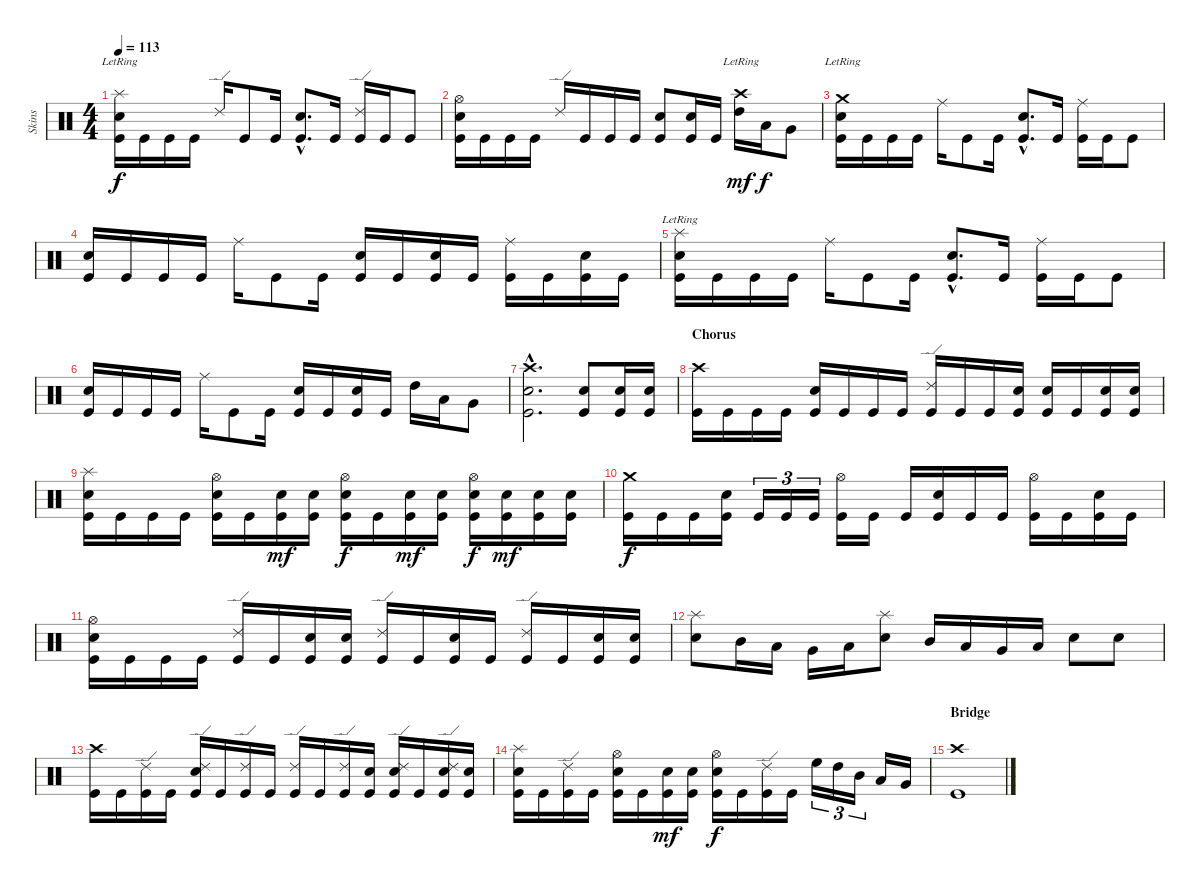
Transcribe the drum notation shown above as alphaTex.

\track ("Skins" "Skins") {instrument percussion}
\staff {score}
\articulation defaults
\ts (4 4)
\tempo 113
\clef neutral
\ks c
("Splash (hit)"{lr} "Electric Snare (hit)" "Kick (hit)").16{dy f} "Kick (hit)".16 "Kick (hit)".16 "Kick (hit)".16 "Ride (edge) 2".16 "Kick (hit)".8 "Kick (hit)".16 ("Electric Snare (hit)"{hac} "Kick (hit)"{hac}).8{d} "Kick (hit)".16 ("Ride (edge) 2" "Kick (hit)").16 "Kick (hit)".16 "Kick (hit)".8 |
("Hi-Hat (open)" "Electric Snare (hit)" "Kick (hit)").16 "Kick (hit)".16 "Kick (hit)".16 "Kick (hit)".16 "Ride (edge) 2".16 "Kick (hit)".16 "Kick (hit)".16 "Kick (hit)".16 ("Snare (hit) 2" "Kick (hit)").8 ("Snare (hit) 2" "Kick (hit)").16 "Kick (hit)".16 ("Crash high (hit)"{lr} "High Tom (hit)").16{dy mf} "Low Tom (hit)".16{dy f} "Very Low Tom (hit)".8 |
("Crash medium (hit)"{lr} "Electric Snare (hit)" "Kick (hit)").16 "Kick (hit)".16 "Kick (hit)".16 "Kick (hit)".16 "Ride (middle)".16 "Kick (hit)".8 "Kick (hit)".16 ("Electric Snare (hit)"{hac} "Kick (hit)"{hac}).8{d} "Kick (hit)".16 ("Ride (middle)" "Kick (hit)").16 "Kick (hit)".16 "Kick (hit)".8 |
("Electric Snare (hit)" "Kick (hit)").16 "Kick (hit)".16 "Kick (hit)".16 "Kick (hit)".16 "Ride (middle)".16 "Kick (hit)".8 "Kick (hit)".16 ("Snare (hit) 2" "Kick (hit)").16 "Kick (hit)".16 ("Snare (hit) 2" "Kick (hit)").16 "Kick (hit)".16 ("Ride (middle)" "Kick (hit)").16 "Kick (hit)".16 ("Snare (hit) 2" "Kick (hit)").16 "Kick (hit)".16 |
("Splash (hit)"{lr} "Electric Snare (hit)" "Kick (hit)").16 "Kick (hit)".16 "Kick (hit)".16 "Kick (hit)".16 "Ride (middle)".16 "Kick (hit)".8 "Kick (hit)".16 ("Electric Snare (hit)"{hac} "Kick (hit)"{hac}).8{d} "Kick (hit)".16 ("Ride (middle)" "Kick (hit)").16 "Kick (hit)".16 "Kick (hit)".8 |
("Electric Snare (hit)" "Kick (hit)").16 "Kick (hit)".16 "Kick (hit)".16 "Kick (hit)".16 "Ride (middle)".16 "Kick (hit)".8 "Kick (hit)".16 ("Snare (hit) 2" "Kick (hit)").16 "Kick (hit)".16 ("Snare (hit) 2" "Kick (hit)").16 "Kick (hit)".16 "High Tom (hit)".16 "Low Tom (hit)".16 "Very Low Tom (hit)".8 |
("Crash high (hit)"{hac} "Electric Snare (hit)"{hac} "Kick (hit)"{hac}).2{d} ("Electric Snare (hit)" "Kick (hit)").8 ("Snare (hit) 2" "Kick (hit)").16 ("Snare (hit) 2" "Kick (hit)").16 |
\section ("" "Chorus")
("Crash high (hit)" "Kick (hit)").16{volume 13 balance 8} "Kick (hit)".16 "Kick (hit)".16 "Kick (hit)".16 ("Electric Snare (hit)" "Kick (hit)").16 "Kick (hit)".16 "Kick (hit)".16 "Kick (hit)".16 ("Ride (edge) 2" "Kick (hit)").16 "Kick (hit)".16 "Kick (hit)".16 ("Snare (hit) 2" "Kick (hit)").16 ("Electric Snare (hit)" "Kick (hit)").16 "Kick (hit)".16 ("Snare (hit) 2" "Kick (hit)").16 ("Snare (hit) 2" "Kick (hit)").16 |
("Splash (hit)" "Electric Snare (hit)" "Kick (hit)").16 "Kick (hit)".16 "Kick (hit)".16 "Kick (hit)".16 ("Hi-Hat (open)" "Electric Snare (hit)" "Kick (hit)").16 "Kick (hit)".16 ("Snare (hit) 2" "Kick (hit)").16{dy mf} ("Snare (hit) 2" "Kick (hit)").16 ("Hi-Hat (open)" "Electric Snare (hit)" "Kick (hit)").16{dy f} "Kick (hit)".16 ("Snare (hit) 2" "Kick (hit)").16{dy mf} ("Snare (hit) 2" "Kick (hit)").16 ("Hi-Hat (open)" "Electric Snare (hit)" "Kick (hit)").16{dy f} ("Snare (hit) 2" "Kick (hit)").16{dy mf} ("Snare (hit) 2" "Kick (hit)").16 ("Snare (hit) 2" "Kick (hit)").16 |
("Crash medium (hit)" "Kick (hit)").16{dy f} "Kick (hit)".16 "Kick (hit)".16 ("Electric Snare (hit)" "Kick (hit)").16 "Kick (hit)".16{tu (3 2)} "Kick (hit)".16{tu (3 2)} "Kick (hit)".16{tu (3 2)} ("Hi-Hat (open)" "Kick (hit)").16 "Kick (hit)".16 "Kick (hit)".16 ("Electric Snare (hit)" "Kick (hit)").16 "Kick (hit)".16 "Kick (hit)".16 ("Hi-Hat (open)" "Kick (hit)").16 "Kick (hit)".16 ("Snare (hit) 2" "Kick (hit)").16 "Kick (hit)".16 |
("Hi-Hat (open)" "Electric Snare (hit)" "Kick (hit)").16 "Kick (hit)".16 "Kick (hit)".16 "Kick (hit)".16 ("Ride (edge) 2" "Kick (hit)").16 "Kick (hit)".16 ("Snare (hit) 2" "Kick (hit)").16 ("Snare (hit) 2" "Kick (hit)").16 ("Ride (edge) 2" "Kick (hit)").16 "Kick (hit)".16 ("Snare (hit) 2" "Kick (hit)").16 "Kick (hit)".16 ("Ride (edge) 2" "Kick (hit)").16 "Kick (hit)".16 ("Snare (hit) 2" "Kick (hit)").16 ("Snare (hit) 2" "Kick (hit)").16 |
("Splash (hit)" "Snare (hit) 2").8 "Mid Tom (hit)".16 "Low Tom (hit)".16 "Very Low Tom (hit)".16 "Low Floor Tom (hit)".16 ("Splash (hit)" "Snare (hit) 2").8 "Mid Tom (hit)".16 "Low Tom (hit)".16 "Very Low Tom (hit)".16 "Low Floor Tom (hit)".16 "Electric Snare (hit)".8 "Electric Snare (hit)".8 |
("Crash high (hit)" "Kick (hit)").16 "Kick (hit)".16 ("Ride (edge) 2" "Kick (hit)").16 "Kick (hit)".16 ("Ride (edge) 2" "Electric Snare (hit)" "Kick (hit)").16 "Kick (hit)".16 ("Ride (edge) 2" "Kick (hit)").16 "Kick (hit)".16 ("Ride (edge) 2" "Kick (hit)").16 "Kick (hit)".16 ("Ride (edge) 2" "Kick (hit)").16 ("Snare (hit) 2" "Kick (hit)").16 ("Ride (edge) 2" "Electric Snare (hit)" "Kick (hit)").16 "Kick (hit)".16 ("Ride (edge) 2" "Snare (hit) 2" "Kick (hit)").16 ("Snare (hit) 2" "Kick (hit)").16 |
("Splash (hit)" "Electric Snare (hit)" "Kick (hit)").16 "Kick (hit)".16 ("Ride (edge) 2" "Kick (hit)").16 "Kick (hit)".16 ("Hi-Hat (open)" "Electric Snare (hit)" "Kick (hit)").16 "Kick (hit)".16 ("Snare (hit) 2" "Kick (hit)").16{dy mf} ("Snare (hit) 2" "Kick (hit)").16 ("Hi-Hat (open)" "Electric Snare (hit)" "Kick (hit)").16{dy f} "Kick (hit)".16 ("Ride (edge) 2" "Kick (hit)").16 "Kick (hit)".16 "High Floor Tom (hit)".16{tu (3 2)} "High Tom (hit)".16{tu (3 2)} "Mid Tom (hit)".16{tu (3 2)} "Low Tom (hit)".16 "Very Low Tom (hit)".16 |
\section ("" "Bridge")
("Crash high (hit)" "Kick (hit)").1
